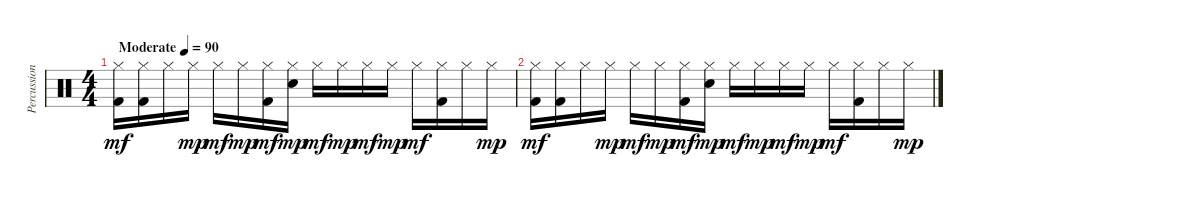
\track ("Percussion" "Percussion") {instrument percussion}
\staff {score}
\articulation defaults
\ts (4 4)
\tempo (90 "Moderate")
\clef neutral
\ks c
("Hi-Hat (closed)" "Kick (hit) 2").16{dy mf} ("Hi-Hat (closed)" "Kick (hit) 2").16 "Hi-Hat (closed)".16 "Hi-Hat (closed)".16{dy mp} "Hi-Hat (closed)".16{dy mf} "Hi-Hat (closed)".16{dy mp} ("Hi-Hat (closed)" "Kick (hit) 2").16{dy mf} ("Hi-Hat (closed)" "Electric Snare (hit)").16{dy mp} "Hi-Hat (closed)".16{dy mf} "Hi-Hat (closed)".16{dy mp} "Hi-Hat (closed)".16{dy mf} "Hi-Hat (closed)".16{dy mp} "Hi-Hat (closed)".16{dy mf} ("Hi-Hat (closed)" "Kick (hit) 2").16 "Hi-Hat (closed)".16 "Hi-Hat (closed)".16{dy mp} |
("Hi-Hat (closed)" "Kick (hit) 2").16{dy mf} ("Hi-Hat (closed)" "Kick (hit) 2").16 "Hi-Hat (closed)".16 "Hi-Hat (closed)".16{dy mp} "Hi-Hat (closed)".16{dy mf} "Hi-Hat (closed)".16{dy mp} ("Hi-Hat (closed)" "Kick (hit) 2").16{dy mf} ("Hi-Hat (closed)" "Electric Snare (hit)").16{dy mp} "Hi-Hat (closed)".16{dy mf} "Hi-Hat (closed)".16{dy mp} "Hi-Hat (closed)".16{dy mf} "Hi-Hat (closed)".16{dy mp} "Hi-Hat (closed)".16{dy mf} ("Hi-Hat (closed)" "Kick (hit) 2").16 "Hi-Hat (closed)".16 "Hi-Hat (closed)".16{dy mp}
